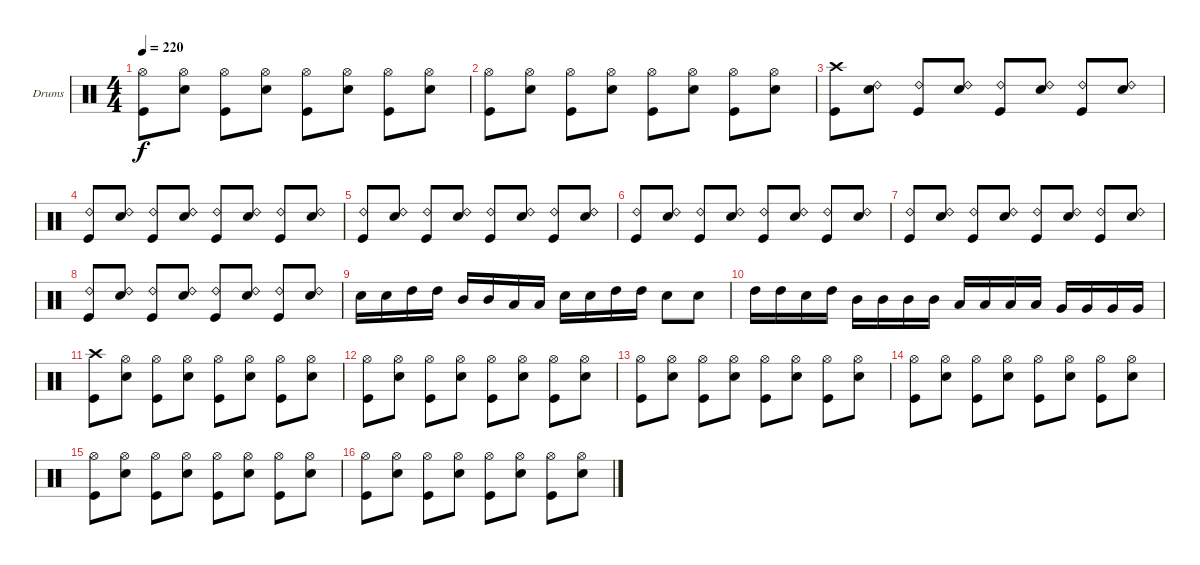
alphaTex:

\bracketExtendMode groupsimilarinstruments
\firstSystemTrackNameOrientation horizontal
\otherSystemsTrackNameOrientation horizontal
\track ("Dave Lombardo" "Drums") {instrument percussion}
\staff {score}
\articulation defaults
\ts (4 4)
\tempo 220
\clef neutral
\ks c
("Kick (hit)" "Hi-Hat (open)").8{dy f} ("Snare (hit) 2" "Hi-Hat (open)").8 ("Kick (hit)" "Hi-Hat (open)").8 ("Snare (hit) 2" "Hi-Hat (open)").8 ("Kick (hit)" "Hi-Hat (open)").8 ("Snare (hit) 2" "Hi-Hat (open)").8 ("Kick (hit)" "Hi-Hat (open)").8 ("Snare (hit) 2" "Hi-Hat (open)").8 |
("Kick (hit)" "Hi-Hat (open)").8 ("Snare (hit) 2" "Hi-Hat (open)").8 ("Kick (hit)" "Hi-Hat (open)").8 ("Snare (hit) 2" "Hi-Hat (open)").8 ("Kick (hit)" "Hi-Hat (open)").8 ("Snare (hit) 2" "Hi-Hat (open)").8 ("Kick (hit)" "Hi-Hat (open)").8 ("Snare (hit) 2" "Hi-Hat (open)").8 |
("Kick (hit)" "Crash high (hit)").8 ("Snare (hit) 2" "Ride (bell) 2").8 ("Kick (hit)" "Ride (bell) 2").8 ("Snare (hit) 2" "Ride (bell) 2").8 ("Kick (hit)" "Ride (bell) 2").8 ("Snare (hit) 2" "Ride (bell) 2").8 ("Kick (hit)" "Ride (bell) 2").8 ("Snare (hit) 2" "Ride (bell) 2").8 |
("Kick (hit)" "Ride (bell) 2").8 ("Snare (hit) 2" "Ride (bell) 2").8 ("Kick (hit)" "Ride (bell) 2").8 ("Snare (hit) 2" "Ride (bell) 2").8 ("Kick (hit)" "Ride (bell) 2").8 ("Snare (hit) 2" "Ride (bell) 2").8 ("Kick (hit)" "Ride (bell) 2").8 ("Snare (hit) 2" "Ride (bell) 2").8 |
("Kick (hit)" "Ride (bell) 2").8 ("Snare (hit) 2" "Ride (bell) 2").8 ("Kick (hit)" "Ride (bell) 2").8 ("Snare (hit) 2" "Ride (bell) 2").8 ("Kick (hit)" "Ride (bell) 2").8 ("Snare (hit) 2" "Ride (bell) 2").8 ("Kick (hit)" "Ride (bell) 2").8 ("Snare (hit) 2" "Ride (bell) 2").8 |
("Kick (hit)" "Ride (bell) 2").8 ("Snare (hit) 2" "Ride (bell) 2").8 ("Kick (hit)" "Ride (bell) 2").8 ("Snare (hit) 2" "Ride (bell) 2").8 ("Kick (hit)" "Ride (bell) 2").8 ("Snare (hit) 2" "Ride (bell) 2").8 ("Kick (hit)" "Ride (bell) 2").8 ("Snare (hit) 2" "Ride (bell) 2").8 |
("Kick (hit)" "Ride (bell) 2").8 ("Snare (hit) 2" "Ride (bell) 2").8 ("Kick (hit)" "Ride (bell) 2").8 ("Snare (hit) 2" "Ride (bell) 2").8 ("Kick (hit)" "Ride (bell) 2").8 ("Snare (hit) 2" "Ride (bell) 2").8 ("Kick (hit)" "Ride (bell) 2").8 ("Snare (hit) 2" "Ride (bell) 2").8 |
("Kick (hit)" "Ride (bell) 2").8 ("Snare (hit) 2" "Ride (bell) 2").8 ("Kick (hit)" "Ride (bell) 2").8 ("Snare (hit) 2" "Ride (bell) 2").8 ("Kick (hit)" "Ride (bell) 2").8 ("Snare (hit) 2" "Ride (bell) 2").8 ("Kick (hit)" "Ride (bell) 2").8 ("Snare (hit) 2" "Ride (bell) 2").8 |
"Snare (hit) 2".16 "Snare (hit) 2".16 "High Tom (hit)".16 "High Tom (hit)".16 "Mid Tom (hit)".16 "Mid Tom (hit)".16 "Low Tom (hit)".16 "Low Tom (hit)".16 "Snare (hit) 2".16 "Snare (hit) 2".16 "High Tom (hit)".16 "High Tom (hit)".16 "Snare (hit) 2".8 "Snare (hit) 2".8 |
"High Tom (hit)".16 "High Tom (hit)".16 "Snare (hit) 2".16 "High Tom (hit)".16 "Mid Tom (hit)".16 "Mid Tom (hit)".16 "Mid Tom (hit)".16 "Mid Tom (hit)".16 "Low Tom (hit)".16 "Low Tom (hit)".16 "Low Tom (hit)".16 "Low Tom (hit)".16 "Very Low Tom (hit)".16 "Very Low Tom (hit)".16 "Very Low Tom (hit)".16 "Very Low Tom (hit)".16 |
("Kick (hit)" "Crash high (hit)").8 ("Snare (hit) 2" "Hi-Hat (open)").8 ("Kick (hit)" "Hi-Hat (open)").8 ("Snare (hit) 2" "Hi-Hat (open)").8 ("Kick (hit)" "Hi-Hat (open)").8 ("Snare (hit) 2" "Hi-Hat (open)").8 ("Kick (hit)" "Hi-Hat (open)").8 ("Snare (hit) 2" "Hi-Hat (open)").8 |
("Kick (hit)" "Hi-Hat (open)").8 ("Snare (hit) 2" "Hi-Hat (open)").8 ("Kick (hit)" "Hi-Hat (open)").8 ("Snare (hit) 2" "Hi-Hat (open)").8 ("Kick (hit)" "Hi-Hat (open)").8 ("Snare (hit) 2" "Hi-Hat (open)").8 ("Kick (hit)" "Hi-Hat (open)").8 ("Snare (hit) 2" "Hi-Hat (open)").8 |
("Kick (hit)" "Hi-Hat (open)").8 ("Snare (hit) 2" "Hi-Hat (open)").8 ("Kick (hit)" "Hi-Hat (open)").8 ("Snare (hit) 2" "Hi-Hat (open)").8 ("Kick (hit)" "Hi-Hat (open)").8 ("Snare (hit) 2" "Hi-Hat (open)").8 ("Kick (hit)" "Hi-Hat (open)").8 ("Snare (hit) 2" "Hi-Hat (open)").8 |
("Kick (hit)" "Hi-Hat (open)").8 ("Snare (hit) 2" "Hi-Hat (open)").8 ("Kick (hit)" "Hi-Hat (open)").8 ("Snare (hit) 2" "Hi-Hat (open)").8 ("Kick (hit)" "Hi-Hat (open)").8 ("Snare (hit) 2" "Hi-Hat (open)").8 ("Kick (hit)" "Hi-Hat (open)").8 ("Snare (hit) 2" "Hi-Hat (open)").8 |
("Kick (hit)" "Hi-Hat (open)").8 ("Snare (hit) 2" "Hi-Hat (open)").8 ("Kick (hit)" "Hi-Hat (open)").8 ("Snare (hit) 2" "Hi-Hat (open)").8 ("Kick (hit)" "Hi-Hat (open)").8 ("Snare (hit) 2" "Hi-Hat (open)").8 ("Kick (hit)" "Hi-Hat (open)").8 ("Snare (hit) 2" "Hi-Hat (open)").8 |
("Kick (hit)" "Hi-Hat (open)").8 ("Snare (hit) 2" "Hi-Hat (open)").8 ("Kick (hit)" "Hi-Hat (open)").8 ("Snare (hit) 2" "Hi-Hat (open)").8 ("Kick (hit)" "Hi-Hat (open)").8 ("Snare (hit) 2" "Hi-Hat (open)").8 ("Kick (hit)" "Hi-Hat (open)").8 ("Snare (hit) 2" "Hi-Hat (open)").8
